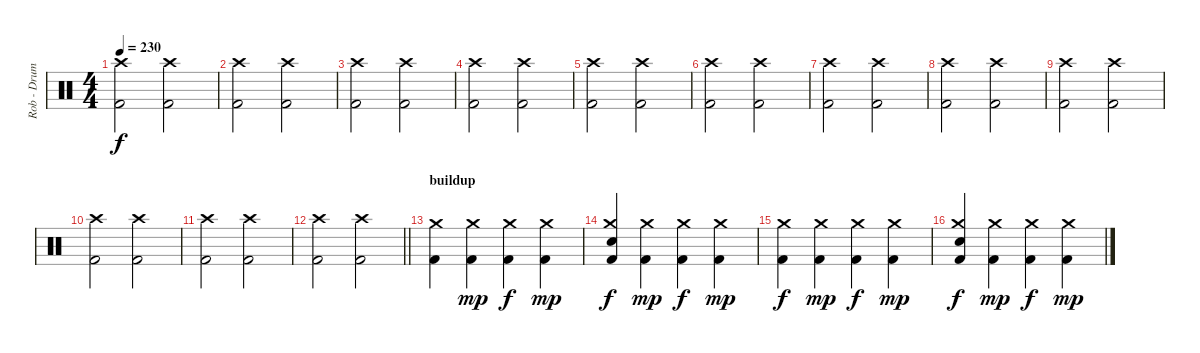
\track ("Rob - Drums" "Rob - Drum") {instrument percussion}
\staff {score}
\articulation defaults
\ts (4 4)
\tempo 230
\clef neutral
\ks c
("Crash high (hit)" "Kick (hit) 2").2{dy f} ("Crash high (hit)" "Kick (hit) 2").2 |
("Crash high (hit)" "Kick (hit) 2").2 ("Crash high (hit)" "Kick (hit) 2").2 |
("Crash high (hit)" "Kick (hit) 2").2 ("Crash high (hit)" "Kick (hit) 2").2 |
("Crash high (hit)" "Kick (hit) 2").2 ("Crash high (hit)" "Kick (hit) 2").2 |
("Crash high (hit)" "Kick (hit) 2").2 ("Crash high (hit)" "Kick (hit) 2").2 |
("Crash high (hit)" "Kick (hit) 2").2 ("Crash high (hit)" "Kick (hit) 2").2 |
("Crash high (hit)" "Kick (hit) 2").2 ("Crash high (hit)" "Kick (hit) 2").2 |
("Crash high (hit)" "Kick (hit) 2").2 ("Crash high (hit)" "Kick (hit) 2").2 |
("Crash high (hit)" "Kick (hit) 2").2 ("Crash high (hit)" "Kick (hit) 2").2 |
("Crash high (hit)" "Kick (hit) 2").2 ("Crash high (hit)" "Kick (hit) 2").2 |
("Crash high (hit)" "Kick (hit) 2").2 ("Crash high (hit)" "Kick (hit) 2").2 |
\barLineRight lightlight
("Crash high (hit)" "Kick (hit) 2").2 ("Crash high (hit)" "Kick (hit) 2").2 |
\section ("" "buildup")
("Crash medium (hit)" "Kick (hit) 2").4 ("Crash medium (hit)" "Kick (hit) 2").4{dy mp} ("Crash medium (hit)" "Kick (hit) 2").4{dy f} ("Crash medium (hit)" "Kick (hit) 2").4{dy mp} |
("Crash medium (hit)" "Electric Snare (hit)" "Kick (hit) 2").4{dy f} ("Crash medium (hit)" "Kick (hit) 2").4{dy mp} ("Crash medium (hit)" "Kick (hit) 2").4{dy f} ("Crash medium (hit)" "Kick (hit) 2").4{dy mp} |
("Crash medium (hit)" "Kick (hit) 2").4{dy f} ("Crash medium (hit)" "Kick (hit) 2").4{dy mp} ("Crash medium (hit)" "Kick (hit) 2").4{dy f} ("Crash medium (hit)" "Kick (hit) 2").4{dy mp} |
("Crash medium (hit)" "Electric Snare (hit)" "Kick (hit) 2").4{dy f} ("Crash medium (hit)" "Kick (hit) 2").4{dy mp} ("Crash medium (hit)" "Kick (hit) 2").4{dy f} ("Crash medium (hit)" "Kick (hit) 2").4{dy mp}
